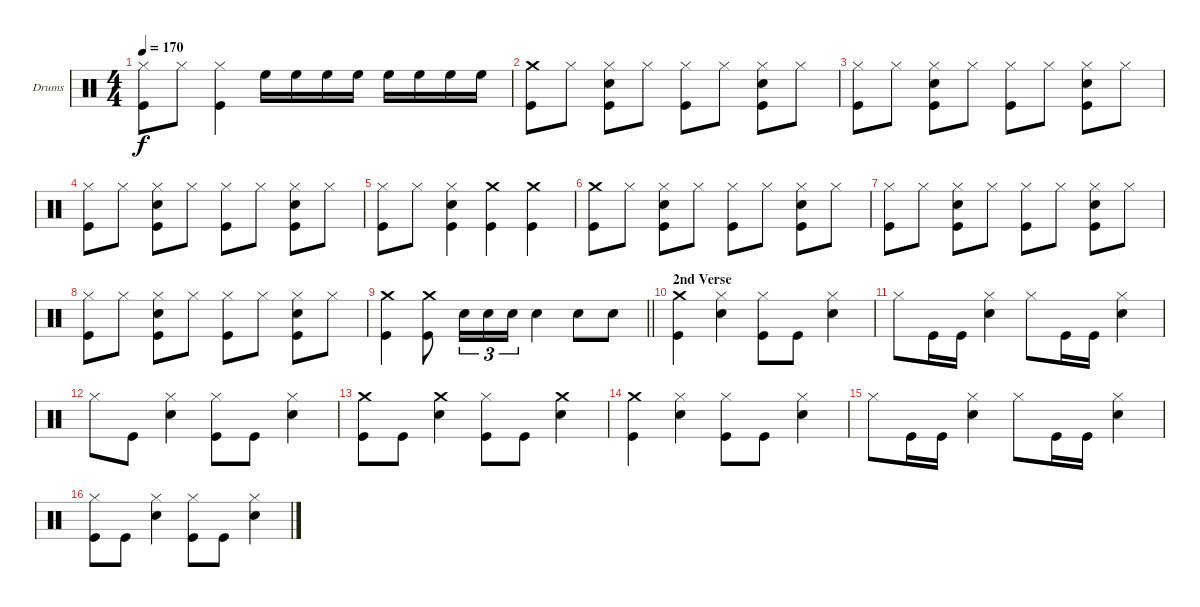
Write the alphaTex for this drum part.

\bracketExtendMode groupsimilarinstruments
\firstSystemTrackNameOrientation horizontal
\otherSystemsTrackNameOrientation horizontal
\track ("Drumkit" "Drums") {instrument percussion}
\staff {score}
\articulation defaults
\ts (4 4)
\tempo 170
\clef neutral
\ks c
("Hi-Hat (closed)" "Kick (hit)").8{dy f} "Hi-Hat (closed)".8 ("Hi-Hat (closed)" "Kick (hit)").4 "High Floor Tom (hit)".16 "High Floor Tom (hit)".16 "High Floor Tom (hit)".16 "High Floor Tom (hit)".16 "High Floor Tom (hit)".16 "High Floor Tom (hit)".16 "High Floor Tom (hit)".16 "High Floor Tom (hit)".16 |
("Crash medium (hit)" "Kick (hit)").8 "Hi-Hat (closed)".8 ("Hi-Hat (closed)" "Snare (hit) 2" "Kick (hit)").8 "Hi-Hat (closed)".8 ("Hi-Hat (closed)" "Kick (hit)").8 "Hi-Hat (closed)".8 ("Hi-Hat (closed)" "Snare (hit) 2" "Kick (hit)").8 "Hi-Hat (closed)".8 |
("Hi-Hat (closed)" "Kick (hit)").8 "Hi-Hat (closed)".8 ("Hi-Hat (closed)" "Snare (hit) 2" "Kick (hit)").8 "Hi-Hat (closed)".8 ("Hi-Hat (closed)" "Kick (hit)").8 "Hi-Hat (closed)".8 ("Hi-Hat (closed)" "Snare (hit) 2" "Kick (hit)").8 "Hi-Hat (closed)".8 |
("Hi-Hat (closed)" "Kick (hit)").8 "Hi-Hat (closed)".8 ("Hi-Hat (closed)" "Snare (hit) 2" "Kick (hit)").8 "Hi-Hat (closed)".8 ("Hi-Hat (closed)" "Kick (hit)").8 "Hi-Hat (closed)".8 ("Hi-Hat (closed)" "Snare (hit) 2" "Kick (hit)").8 "Hi-Hat (closed)".8 |
("Hi-Hat (closed)" "Kick (hit)").8 "Hi-Hat (closed)".8 ("Hi-Hat (closed)" "Snare (hit) 2" "Kick (hit)").4 ("Crash medium (hit)" "Kick (hit)").4 ("Crash medium (hit)" "Kick (hit)").4 |
("Crash medium (hit)" "Kick (hit)").8 "Hi-Hat (closed)".8 ("Hi-Hat (closed)" "Snare (hit) 2" "Kick (hit)").8 "Hi-Hat (closed)".8 ("Hi-Hat (closed)" "Kick (hit)").8 "Hi-Hat (closed)".8 ("Hi-Hat (closed)" "Snare (hit) 2" "Kick (hit)").8 "Hi-Hat (closed)".8 |
("Hi-Hat (closed)" "Kick (hit)").8 "Hi-Hat (closed)".8 ("Hi-Hat (closed)" "Snare (hit) 2" "Kick (hit)").8 "Hi-Hat (closed)".8 ("Hi-Hat (closed)" "Kick (hit)").8 "Hi-Hat (closed)".8 ("Hi-Hat (closed)" "Snare (hit) 2" "Kick (hit)").8 "Hi-Hat (closed)".8 |
("Hi-Hat (closed)" "Kick (hit)").8 "Hi-Hat (closed)".8 ("Hi-Hat (closed)" "Snare (hit) 2" "Kick (hit)").8 "Hi-Hat (closed)".8 ("Hi-Hat (closed)" "Kick (hit)").8 "Hi-Hat (closed)".8 ("Hi-Hat (closed)" "Snare (hit) 2" "Kick (hit)").8 "Hi-Hat (closed)".8 |
\barLineRight lightlight
("Crash medium (hit)" "Kick (hit)").4 ("Crash medium (hit)" "Kick (hit)").8 "Snare (hit) 2".16{tu (3 2)} "Snare (hit) 2".16{tu (3 2)} "Snare (hit) 2".16{tu (3 2)} "Snare (hit) 2".4 "Snare (hit) 2".8 "Snare (hit) 2".8 |
\section ("" "2nd Verse")
("Crash medium (hit)" "Kick (hit)").4 ("Hi-Hat (closed)" "Snare (hit) 2").4 ("Hi-Hat (closed)" "Kick (hit)").8 "Kick (hit)".8 ("Hi-Hat (closed)" "Snare (hit) 2").4 |
"Hi-Hat (closed)".8 "Kick (hit)".16 "Kick (hit)".16 ("Hi-Hat (closed)" "Snare (hit) 2").4 "Hi-Hat (closed)".8 "Kick (hit)".16 "Kick (hit)".16 ("Hi-Hat (closed)" "Snare (hit) 2").4 |
"Hi-Hat (closed)".8 "Kick (hit)".8 ("Hi-Hat (closed)" "Snare (hit) 2").4 ("Hi-Hat (closed)" "Kick (hit)").8 "Kick (hit)".8 ("Hi-Hat (closed)" "Snare (hit) 2").4 |
("Crash medium (hit)" "Kick (hit)").8 "Kick (hit)".8 ("Crash medium (hit)" "Snare (hit) 2").4 ("Hi-Hat (closed)" "Kick (hit)").8 "Kick (hit)".8 ("Crash medium (hit)" "Snare (hit) 2").4 |
("Crash medium (hit)" "Kick (hit)").4 ("Hi-Hat (closed)" "Snare (hit) 2").4 ("Hi-Hat (closed)" "Kick (hit)").8 "Kick (hit)".8 ("Hi-Hat (closed)" "Snare (hit) 2").4 |
"Hi-Hat (closed)".8 "Kick (hit)".16 "Kick (hit)".16 ("Hi-Hat (closed)" "Snare (hit) 2").4 "Hi-Hat (closed)".8 "Kick (hit)".16 "Kick (hit)".16 ("Hi-Hat (closed)" "Snare (hit) 2").4 |
("Hi-Hat (closed)" "Kick (hit)").8 "Kick (hit)".8 ("Hi-Hat (closed)" "Snare (hit) 2").4 ("Hi-Hat (closed)" "Kick (hit)").8 "Kick (hit)".8 ("Hi-Hat (closed)" "Snare (hit) 2").4
